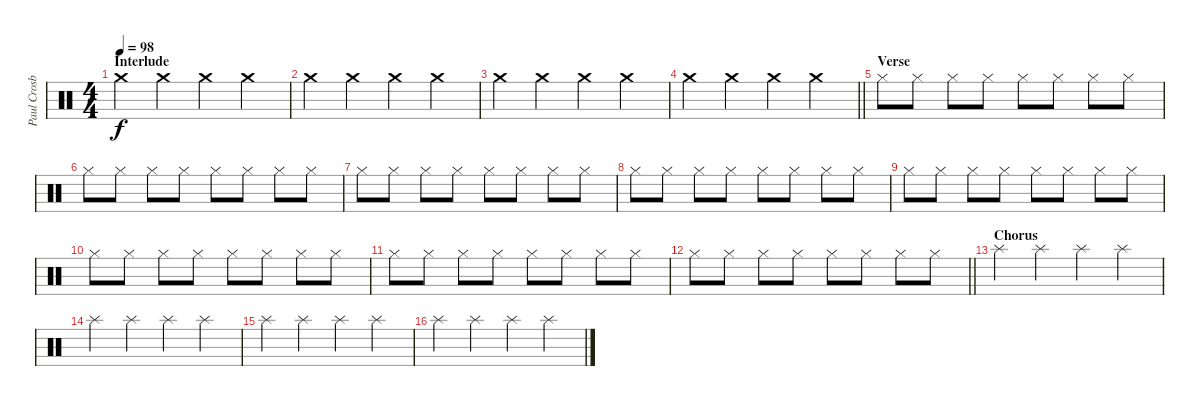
\track ("Paul Crosby (Drums)" "Paul Crosb") {instrument percussion}
\staff {score}
\articulation defaults
\ts (4 4)
\section ("" "Interlude")
\tempo 98
\clef neutral
\ks c "Crash medium (hit)".4{dy f} "Crash medium (hit)".4 "Crash medium (hit)".4 "Crash medium (hit)".4
|
"Crash medium (hit)".4 "Crash medium (hit)".4 "Crash medium (hit)".4 "Crash medium (hit)".4 |
"Crash medium (hit)".4 "Crash medium (hit)".4 "Crash medium (hit)".4 "Crash medium (hit)".4 |
\barLineRight lightlight "Crash medium (hit)".4 "Crash medium (hit)".4 "Crash medium (hit)".4 "Crash medium (hit)".4
|
\section ("" "Verse")
"Hi-Hat (closed)".8 "Hi-Hat (closed)".8 "Hi-Hat (closed)".8 "Hi-Hat (closed)".8 "Hi-Hat (closed)".8 "Hi-Hat (closed)".8 "Hi-Hat (closed)".8 "Hi-Hat (closed)".8 |
"Hi-Hat (closed)".8 "Hi-Hat (closed)".8 "Hi-Hat (closed)".8 "Hi-Hat (closed)".8 "Hi-Hat (closed)".8 "Hi-Hat (closed)".8 "Hi-Hat (closed)".8 "Hi-Hat (closed)".8 |
"Hi-Hat (closed)".8 "Hi-Hat (closed)".8 "Hi-Hat (closed)".8 "Hi-Hat (closed)".8 "Hi-Hat (closed)".8 "Hi-Hat (closed)".8 "Hi-Hat (closed)".8 "Hi-Hat (closed)".8 |
"Hi-Hat (closed)".8 "Hi-Hat (closed)".8 "Hi-Hat (closed)".8 "Hi-Hat (closed)".8 "Hi-Hat (closed)".8 "Hi-Hat (closed)".8 "Hi-Hat (closed)".8 "Hi-Hat (closed)".8 |
"Hi-Hat (closed)".8 "Hi-Hat (closed)".8 "Hi-Hat (closed)".8 "Hi-Hat (closed)".8 "Hi-Hat (closed)".8 "Hi-Hat (closed)".8 "Hi-Hat (closed)".8 "Hi-Hat (closed)".8 |
"Hi-Hat (closed)".8 "Hi-Hat (closed)".8 "Hi-Hat (closed)".8 "Hi-Hat (closed)".8 "Hi-Hat (closed)".8 "Hi-Hat (closed)".8 "Hi-Hat (closed)".8 "Hi-Hat (closed)".8 |
"Hi-Hat (closed)".8 "Hi-Hat (closed)".8 "Hi-Hat (closed)".8 "Hi-Hat (closed)".8 "Hi-Hat (closed)".8 "Hi-Hat (closed)".8 "Hi-Hat (closed)".8 "Hi-Hat (closed)".8 |
\barLineRight lightlight "Hi-Hat (closed)".8 "Hi-Hat (closed)".8 "Hi-Hat (closed)".8 "Hi-Hat (closed)".8 "Hi-Hat (closed)".8 "Hi-Hat (closed)".8 "Hi-Hat (closed)".8 "Hi-Hat (closed)".8
|
\section ("" "Chorus")
"Splash (hit)".4 "Splash (hit)".4 "Splash (hit)".4 "Splash (hit)".4 |
"Splash (hit)".4 "Splash (hit)".4 "Splash (hit)".4 "Splash (hit)".4 |
"Splash (hit)".4 "Splash (hit)".4 "Splash (hit)".4 "Splash (hit)".4 |
"Splash (hit)".4 "Splash (hit)".4 "Splash (hit)".4 "Splash (hit)".4
